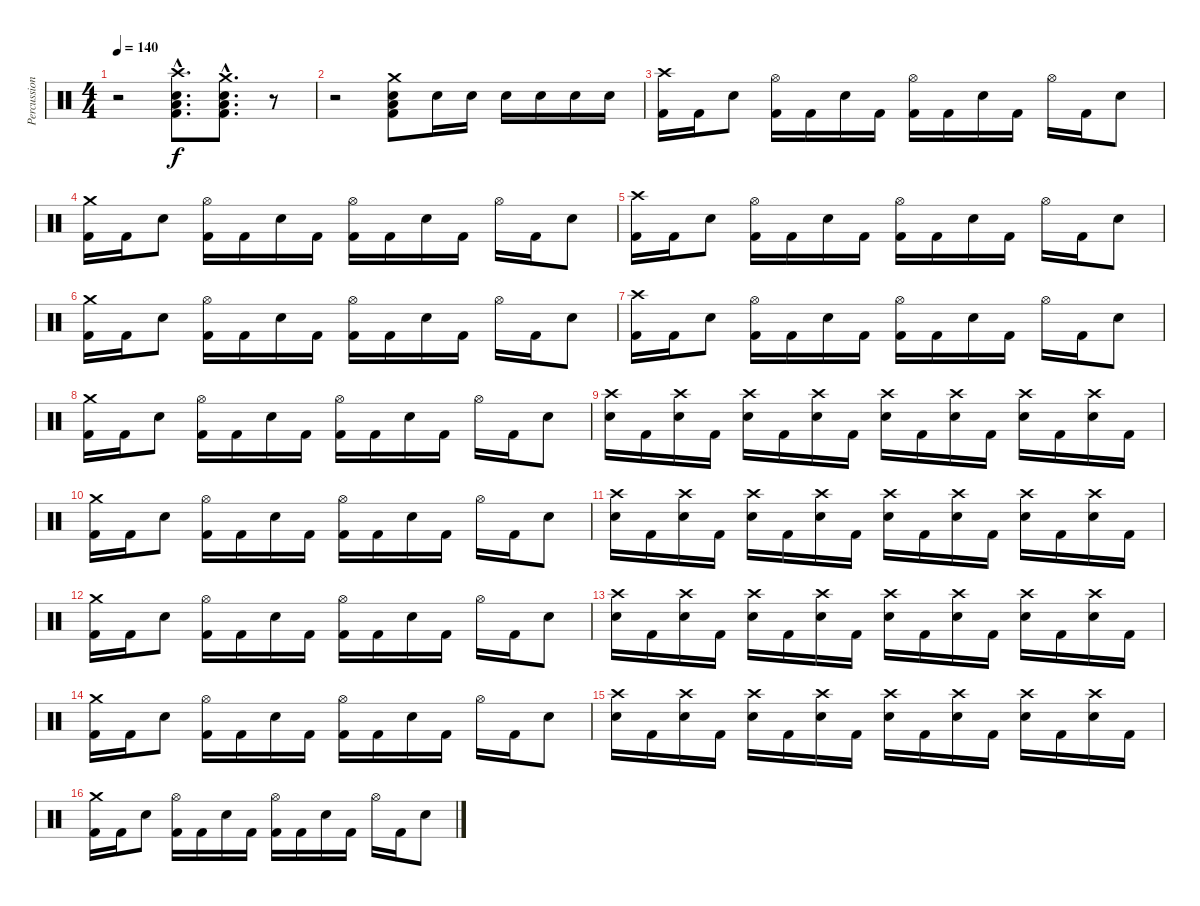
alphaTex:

\track ("Percussions" "Percussion") {instrument percussion}
\staff {score}
\articulation defaults
\ts (4 4)
\tempo 140
\clef neutral
\ks c
r.2{dy f} ("Crash high (hit)"{hac} "Electric Snare (hit)"{hac} "Low Floor Tom (hit)"{hac} "Kick (hit) 2"{hac}).8{d} ("Crash medium (hit)"{hac} "Electric Snare (hit)"{hac} "Low Floor Tom (hit)"{hac} "Kick (hit) 2"{hac}).8{d} r.8 |
r.2 ("Crash medium (hit)" "Electric Snare (hit)" "Low Floor Tom (hit)" "Kick (hit) 2").8 "Electric Snare (hit)".16 "Electric Snare (hit)".16 "Electric Snare (hit)".16 "Electric Snare (hit)".16 "Electric Snare (hit)".16 "Electric Snare (hit)".16 |
("Crash high (hit)" "Kick (hit) 2").16 "Kick (hit) 2".16 "Electric Snare (hit)".8 ("Hi-Hat (open)" "Kick (hit) 2").16 "Kick (hit) 2".16 "Electric Snare (hit)".16 "Kick (hit) 2".16 ("Hi-Hat (open)" "Kick (hit) 2").16 "Kick (hit) 2".16 "Electric Snare (hit)".16 "Kick (hit) 2".16 "Hi-Hat (open)".16 "Kick (hit) 2".16 "Electric Snare (hit)".8 |
("Crash medium (hit)" "Kick (hit) 2").16 "Kick (hit) 2".16 "Electric Snare (hit)".8 ("Hi-Hat (open)" "Kick (hit) 2").16 "Kick (hit) 2".16 "Electric Snare (hit)".16 "Kick (hit) 2".16 ("Hi-Hat (open)" "Kick (hit) 2").16 "Kick (hit) 2".16 "Electric Snare (hit)".16 "Kick (hit) 2".16 "Hi-Hat (open)".16 "Kick (hit) 2".16 "Electric Snare (hit)".8 |
("Crash high (hit)" "Kick (hit) 2").16 "Kick (hit) 2".16 "Electric Snare (hit)".8 ("Hi-Hat (open)" "Kick (hit) 2").16 "Kick (hit) 2".16 "Electric Snare (hit)".16 "Kick (hit) 2".16 ("Hi-Hat (open)" "Kick (hit) 2").16 "Kick (hit) 2".16 "Electric Snare (hit)".16 "Kick (hit) 2".16 "Hi-Hat (open)".16 "Kick (hit) 2".16 "Electric Snare (hit)".8 |
("Crash medium (hit)" "Kick (hit) 2").16 "Kick (hit) 2".16 "Electric Snare (hit)".8 ("Hi-Hat (open)" "Kick (hit) 2").16 "Kick (hit) 2".16 "Electric Snare (hit)".16 "Kick (hit) 2".16 ("Hi-Hat (open)" "Kick (hit) 2").16 "Kick (hit) 2".16 "Electric Snare (hit)".16 "Kick (hit) 2".16 "Hi-Hat (open)".16 "Kick (hit) 2".16 "Electric Snare (hit)".8 |
("Crash high (hit)" "Kick (hit) 2").16 "Kick (hit) 2".16 "Electric Snare (hit)".8 ("Hi-Hat (open)" "Kick (hit) 2").16 "Kick (hit) 2".16 "Electric Snare (hit)".16 "Kick (hit) 2".16 ("Hi-Hat (open)" "Kick (hit) 2").16 "Kick (hit) 2".16 "Electric Snare (hit)".16 "Kick (hit) 2".16 "Hi-Hat (open)".16 "Kick (hit) 2".16 "Electric Snare (hit)".8 |
("Crash medium (hit)" "Kick (hit) 2").16 "Kick (hit) 2".16 "Electric Snare (hit)".8 ("Hi-Hat (open)" "Kick (hit) 2").16 "Kick (hit) 2".16 "Electric Snare (hit)".16 "Kick (hit) 2".16 ("Hi-Hat (open)" "Kick (hit) 2").16 "Kick (hit) 2".16 "Electric Snare (hit)".16 "Kick (hit) 2".16 "Hi-Hat (open)".16 "Kick (hit) 2".16 "Electric Snare (hit)".8 |
("Crash high (hit)" "Electric Snare (hit)").16 "Kick (hit) 2".16 ("Crash high (hit)" "Electric Snare (hit)").16 "Kick (hit) 2".16 ("Crash high (hit)" "Electric Snare (hit)").16 "Kick (hit) 2".16 ("Crash high (hit)" "Electric Snare (hit)").16 "Kick (hit) 2".16 ("Crash high (hit)" "Electric Snare (hit)").16 "Kick (hit) 2".16 ("Crash high (hit)" "Electric Snare (hit)").16 "Kick (hit) 2".16 ("Crash high (hit)" "Electric Snare (hit)").16 "Kick (hit) 2".16 ("Crash high (hit)" "Electric Snare (hit)").16 "Kick (hit) 2".16 |
("Crash medium (hit)" "Kick (hit) 2").16 "Kick (hit) 2".16 "Electric Snare (hit)".8 ("Hi-Hat (open)" "Kick (hit) 2").16 "Kick (hit) 2".16 "Electric Snare (hit)".16 "Kick (hit) 2".16 ("Hi-Hat (open)" "Kick (hit) 2").16 "Kick (hit) 2".16 "Electric Snare (hit)".16 "Kick (hit) 2".16 "Hi-Hat (open)".16 "Kick (hit) 2".16 "Electric Snare (hit)".8 |
("Crash high (hit)" "Electric Snare (hit)").16 "Kick (hit) 2".16 ("Crash high (hit)" "Electric Snare (hit)").16 "Kick (hit) 2".16 ("Crash high (hit)" "Electric Snare (hit)").16 "Kick (hit) 2".16 ("Crash high (hit)" "Electric Snare (hit)").16 "Kick (hit) 2".16 ("Crash high (hit)" "Electric Snare (hit)").16 "Kick (hit) 2".16 ("Crash high (hit)" "Electric Snare (hit)").16 "Kick (hit) 2".16 ("Crash high (hit)" "Electric Snare (hit)").16 "Kick (hit) 2".16 ("Crash high (hit)" "Electric Snare (hit)").16 "Kick (hit) 2".16 |
("Crash medium (hit)" "Kick (hit) 2").16 "Kick (hit) 2".16 "Electric Snare (hit)".8 ("Hi-Hat (open)" "Kick (hit) 2").16 "Kick (hit) 2".16 "Electric Snare (hit)".16 "Kick (hit) 2".16 ("Hi-Hat (open)" "Kick (hit) 2").16 "Kick (hit) 2".16 "Electric Snare (hit)".16 "Kick (hit) 2".16 "Hi-Hat (open)".16 "Kick (hit) 2".16 "Electric Snare (hit)".8 |
("Crash high (hit)" "Electric Snare (hit)").16 "Kick (hit) 2".16 ("Crash high (hit)" "Electric Snare (hit)").16 "Kick (hit) 2".16 ("Crash high (hit)" "Electric Snare (hit)").16 "Kick (hit) 2".16 ("Crash high (hit)" "Electric Snare (hit)").16 "Kick (hit) 2".16 ("Crash high (hit)" "Electric Snare (hit)").16 "Kick (hit) 2".16 ("Crash high (hit)" "Electric Snare (hit)").16 "Kick (hit) 2".16 ("Crash high (hit)" "Electric Snare (hit)").16 "Kick (hit) 2".16 ("Crash high (hit)" "Electric Snare (hit)").16 "Kick (hit) 2".16 |
("Crash medium (hit)" "Kick (hit) 2").16 "Kick (hit) 2".16 "Electric Snare (hit)".8 ("Hi-Hat (open)" "Kick (hit) 2").16 "Kick (hit) 2".16 "Electric Snare (hit)".16 "Kick (hit) 2".16 ("Hi-Hat (open)" "Kick (hit) 2").16 "Kick (hit) 2".16 "Electric Snare (hit)".16 "Kick (hit) 2".16 "Hi-Hat (open)".16 "Kick (hit) 2".16 "Electric Snare (hit)".8 |
("Crash high (hit)" "Electric Snare (hit)").16 "Kick (hit) 2".16 ("Crash high (hit)" "Electric Snare (hit)").16 "Kick (hit) 2".16 ("Crash high (hit)" "Electric Snare (hit)").16 "Kick (hit) 2".16 ("Crash high (hit)" "Electric Snare (hit)").16 "Kick (hit) 2".16 ("Crash high (hit)" "Electric Snare (hit)").16 "Kick (hit) 2".16 ("Crash high (hit)" "Electric Snare (hit)").16 "Kick (hit) 2".16 ("Crash high (hit)" "Electric Snare (hit)").16 "Kick (hit) 2".16 ("Crash high (hit)" "Electric Snare (hit)").16 "Kick (hit) 2".16 |
("Crash medium (hit)" "Kick (hit) 2").16 "Kick (hit) 2".16 "Electric Snare (hit)".8 ("Hi-Hat (open)" "Kick (hit) 2").16 "Kick (hit) 2".16 "Electric Snare (hit)".16 "Kick (hit) 2".16 ("Hi-Hat (open)" "Kick (hit) 2").16 "Kick (hit) 2".16 "Electric Snare (hit)".16 "Kick (hit) 2".16 "Hi-Hat (open)".16 "Kick (hit) 2".16 "Electric Snare (hit)".8
